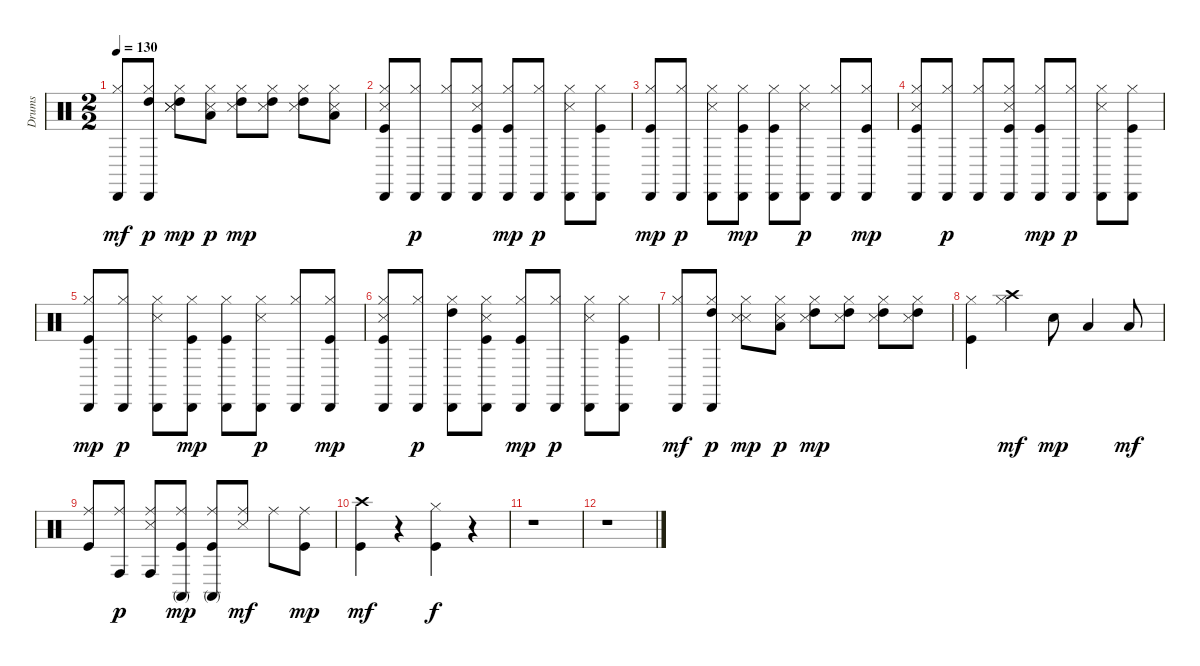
\track ("Drums" "Drums") {instrument percussion}
\staff {score}
\articulation defaults
\ts (2 2)
\tempo 130
\clef neutral
\ks c
("Hi-Hat (closed)" "Cabasa (hit)").8{dy mf} ("Hi-Hat (closed)" "High Tom (hit)" "Cabasa (hit)").8{dy p} ("Snare (side stick) 3" "Snare (side stick) 3" "Hi-Hat (closed)" "High Tom (hit)").8{dy mp} ("Snare (side stick) 3" "Hi-Hat (closed)" "Low Tom (hit)").8{dy p} ("Snare (side stick) 3" "Hi-Hat (closed)" "High Tom (hit)").8{dy mp} ("Snare (side stick) 3" "Hi-Hat (closed)" "High Tom (hit)").8 ("Snare (side stick) 3" "Hi-Hat (closed)" "High Tom (hit)").8 ("Snare (side stick) 3" "Hi-Hat (closed)" "Low Tom (hit)").8 |
("Kick (hit)" "Snare (side stick) 3" "Hi-Hat (closed)" "Cabasa (hit)").8 ("Hi-Hat (closed)" "Cabasa (hit)").8{dy p} ("Hi-Hat (closed)" "Cabasa (hit)").8 ("Kick (hit)" "Snare (side stick) 3" "Hi-Hat (closed)" "Cabasa (hit)").8 ("Kick (hit)" "Hi-Hat (closed)" "Cabasa (hit)").8{dy mp} ("Hi-Hat (closed)" "Cabasa (hit)").8{dy p} ("Snare (side stick) 3" "Hi-Hat (closed)" "Cabasa (hit)").8 ("Kick (hit)" "Hi-Hat (closed)" "Cabasa (hit)").8 |
("Kick (hit)" "Hi-Hat (closed)" "Cabasa (hit)").8{dy mp} ("Hi-Hat (closed)" "Cabasa (hit)").8{dy p} ("Snare (side stick) 3" "Hi-Hat (closed)" "Cabasa (hit)").8 ("Kick (hit)" "Hi-Hat (closed)" "Cabasa (hit)").8{dy mp} ("Kick (hit)" "Hi-Hat (closed)" "Cabasa (hit)").8 ("Snare (side stick) 3" "Hi-Hat (closed)" "Cabasa (hit)").8{dy p} ("Hi-Hat (closed)" "Cabasa (hit)").8 ("Kick (hit)" "Hi-Hat (closed)" "Cabasa (hit)").8{dy mp} |
("Kick (hit)" "Snare (side stick) 3" "Hi-Hat (closed)" "Cabasa (hit)").8 ("Hi-Hat (closed)" "Cabasa (hit)").8{dy p} ("Hi-Hat (closed)" "Cabasa (hit)").8 ("Kick (hit)" "Snare (side stick) 3" "Hi-Hat (closed)" "Cabasa (hit)").8 ("Kick (hit)" "Hi-Hat (closed)" "Cabasa (hit)").8{dy mp} ("Hi-Hat (closed)" "Cabasa (hit)").8{dy p} ("Snare (side stick) 3" "Hi-Hat (closed)" "Cabasa (hit)").8 ("Kick (hit)" "Hi-Hat (closed)" "Cabasa (hit)").8 |
("Kick (hit)" "Hi-Hat (closed)" "Cabasa (hit)").8{dy mp} ("Hi-Hat (closed)" "Cabasa (hit)").8{dy p} ("Snare (side stick) 3" "Hi-Hat (closed)" "Cabasa (hit)").8 ("Kick (hit)" "Hi-Hat (closed)" "Cabasa (hit)").8{dy mp} ("Kick (hit)" "Hi-Hat (closed)" "Cabasa (hit)").8 ("Snare (side stick) 3" "Hi-Hat (closed)" "Cabasa (hit)").8{dy p} ("Hi-Hat (closed)" "Cabasa (hit)").8 ("Kick (hit)" "Hi-Hat (closed)" "Cabasa (hit)").8{dy mp} |
("Kick (hit)" "Snare (side stick) 3" "Hi-Hat (closed)" "Cabasa (hit)").8 ("Hi-Hat (closed)" "Cabasa (hit)").8{dy p} ("Hi-Hat (closed)" "High Tom (hit)" "Cabasa (hit)").8 ("Kick (hit)" "Snare (side stick) 3" "Hi-Hat (closed)" "Cabasa (hit)").8 ("Kick (hit)" "Hi-Hat (closed)" "Cabasa (hit)").8{dy mp} ("Hi-Hat (closed)" "Cabasa (hit)").8{dy p} ("Snare (side stick) 3" "Hi-Hat (closed)" "Cabasa (hit)").8 ("Kick (hit)" "Hi-Hat (closed)" "Cabasa (hit)").8 |
("Hi-Hat (closed)" "Cabasa (hit)").8{dy mf} ("Hi-Hat (closed)" "High Tom (hit)" "Cabasa (hit)").8{dy p} ("Snare (side stick) 3" "Snare (side stick) 3" "Hi-Hat (closed)").8{dy mp} ("Snare (side stick) 3" "Hi-Hat (closed)" "Low Tom (hit)").8{dy p} ("Snare (side stick) 3" "Hi-Hat (closed)" "High Tom (hit)").8{dy mp} ("Snare (side stick) 3" "Hi-Hat (closed)" "High Tom (hit)").8 ("Snare (side stick) 3" "Hi-Hat (closed)" "High Tom (hit)").8 ("Snare (side stick) 3" "Hi-Hat (closed)" "High Tom (hit)").8 |
("Kick (hit)" "Hi-Hat (closed)").4 ("Hi-Hat (closed)" "Crash high (hit)").4{dy mf} "Snare (hit) 2".8{dy mp} "Low Tom (hit)".4 "Low Tom (hit)".8{dy mf} |
("Kick (hit)" "Ride (middle)").8 ("Ride (middle)" "Conga high (hit)").8{dy p} ("Snare (side stick) 3" "Ride (middle)" "Conga high (hit)").8 ("Kick (hit)" "Ride (middle)" "Conga high (mute)").8{dy mp} ("Kick (hit)" "Ride (middle)" "Conga high (mute)").8 ("Snare (side stick) 3" "Ride (middle)").8{dy mf} "Ride (middle)".8 ("Kick (hit)" "Ride (middle)").8{dy mp} |
("Kick (hit)" "Crash high (hit)").4{dy mf} r.4 ("Kick (hit)" "Hi-Hat (closed)").4{dy f} r.4 |
r.1 |
r.1
